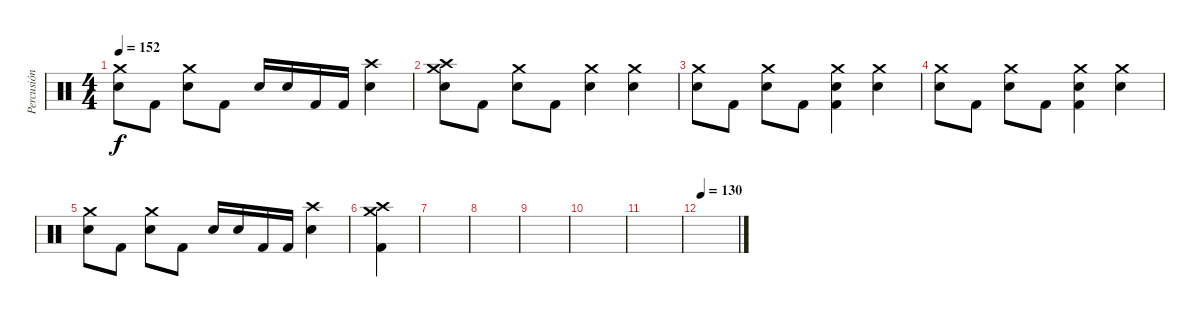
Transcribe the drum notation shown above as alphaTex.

\track ("Percusión" "Percusión") {instrument percussion}
\staff {score}
\articulation defaults
\ts (4 4)
\tempo 152
\clef neutral
\ks c
("Crash medium (hit)" "Snare (hit) 2").8{dy f} "Kick (hit) 2".8 ("Crash medium (hit)" "Snare (hit) 2").8 "Kick (hit) 2".8 "Snare (hit) 2".16 "Snare (hit) 2".16 "Kick (hit) 2".16 "Kick (hit) 2".16 ("Crash high (hit)" "Snare (hit) 2").4 |
("Crash high (hit)" "Crash medium (hit)" "Snare (hit) 2").8 "Kick (hit) 2".8 ("Crash medium (hit)" "Snare (hit) 2").8 "Kick (hit) 2".8 ("Crash medium (hit)" "Snare (hit) 2").4 ("Crash medium (hit)" "Snare (hit) 2").4 |
("Crash medium (hit)" "Snare (hit) 2").8 "Kick (hit) 2".8 ("Crash medium (hit)" "Snare (hit) 2").8 "Kick (hit) 2".8 ("Crash medium (hit)" "Snare (hit) 2" "Kick (hit) 2").4 ("Crash medium (hit)" "Snare (hit) 2").4 |
("Crash medium (hit)" "Snare (hit) 2").8 "Kick (hit) 2".8 ("Crash medium (hit)" "Snare (hit) 2").8 "Kick (hit) 2".8 ("Crash medium (hit)" "Snare (hit) 2" "Kick (hit) 2").4 ("Crash medium (hit)" "Snare (hit) 2").4 |
("Crash medium (hit)" "Snare (hit) 2").8 "Kick (hit) 2".8 ("Crash medium (hit)" "Snare (hit) 2").8 "Kick (hit) 2".8 "Snare (hit) 2".16 "Snare (hit) 2".16 "Kick (hit) 2".16 "Kick (hit) 2".16 ("Crash high (hit)" "Snare (hit) 2").4 |
("Crash medium (hit)" "Crash high (hit)" "Kick (hit) 2").4 |
|
|
|
|
|
\tempo 130
